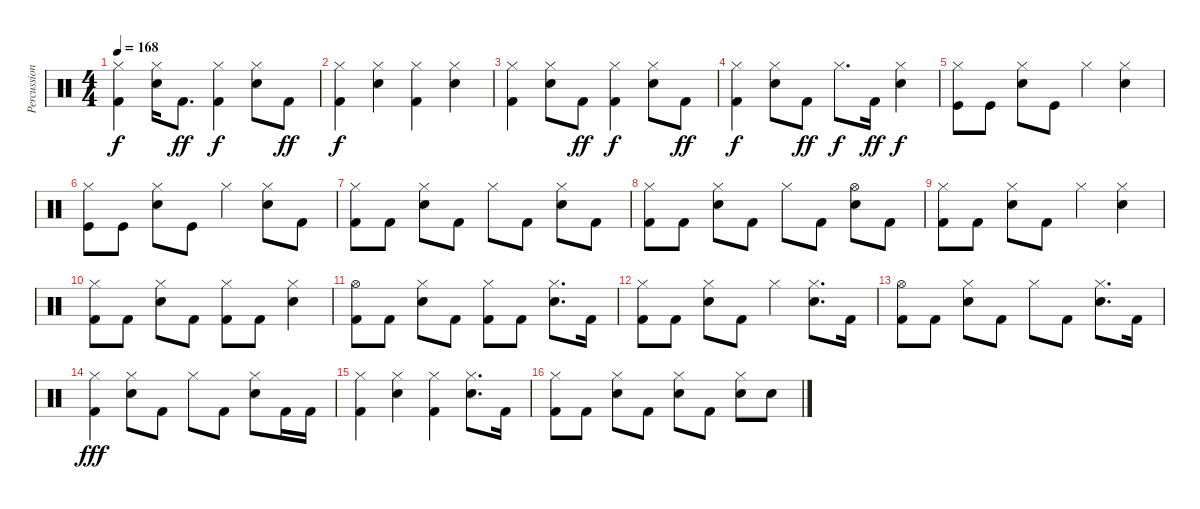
\track ("Percussion" "Percussion") {instrument percussion}
\staff {score}
\articulation defaults
\ts (4 4)
\tempo 168
\clef neutral
\ks c
("Hi-Hat (closed)" "Kick (hit) 2").4{dy f} ("Electric Snare (hit)" "Hi-Hat (closed)").16 "Kick (hit) 2".8{d dy ff} ("Kick (hit) 2" "Hi-Hat (closed)").4{dy f} ("Snare (hit) 2" "Hi-Hat (closed)").8 "Kick (hit) 2".8{dy ff} |
("Hi-Hat (closed)" "Kick (hit) 2").4{dy f} ("Electric Snare (hit)" "Hi-Hat (closed)").4 ("Hi-Hat (closed)" "Kick (hit) 2").4 ("Electric Snare (hit)" "Hi-Hat (closed)").4 |
("Kick (hit) 2" "Hi-Hat (closed)").4 ("Snare (hit) 2" "Hi-Hat (closed)").8 "Kick (hit) 2".8{dy ff} ("Kick (hit) 2" "Hi-Hat (closed)").4{dy f} ("Snare (hit) 2" "Hi-Hat (closed)").8 "Kick (hit) 2".8{dy ff} |
("Kick (hit) 2" "Hi-Hat (closed)").4{dy f} ("Snare (hit) 2" "Hi-Hat (closed)").8 "Kick (hit) 2".8{dy ff} "Hi-Hat (closed)".8{d dy f} "Kick (hit) 2".16{dy ff} ("Snare (hit) 2" "Hi-Hat (closed)").4{dy f} |
("Kick (hit)" "Hi-Hat (closed)").8 "Kick (hit)".8 ("Hi-Hat (closed)" "Snare (hit) 2").8 "Kick (hit)".8 "Hi-Hat (closed)".4 ("Hi-Hat (closed)" "Snare (hit) 2").4 |
("Kick (hit)" "Hi-Hat (closed)").8 "Kick (hit)".8 ("Hi-Hat (closed)" "Snare (hit) 2").8 "Kick (hit)".8 "Hi-Hat (closed)".4 ("Hi-Hat (closed)" "Snare (hit) 2").8 "Kick (hit) 2".8 |
("Kick (hit) 2" "Hi-Hat (closed)").8 "Kick (hit) 2".8 ("Snare (hit) 2" "Hi-Hat (closed)").8 "Kick (hit) 2".8 "Hi-Hat (closed)".8 "Kick (hit) 2".8 ("Snare (hit) 2" "Hi-Hat (closed)").8 "Kick (hit) 2".8 |
("Kick (hit) 2" "Hi-Hat (closed)").8 "Kick (hit) 2".8 ("Hi-Hat (closed)" "Snare (hit) 2").8 "Kick (hit) 2".8 "Hi-Hat (closed)".8 "Kick (hit) 2".8 ("Snare (hit) 2" "Hi-Hat (open)").8 "Kick (hit) 2".8 |
("Kick (hit) 2" "Hi-Hat (closed)").8 "Kick (hit) 2".8 ("Hi-Hat (closed)" "Snare (hit) 2").8 "Kick (hit) 2".8 "Hi-Hat (closed)".4 ("Snare (hit) 2" "Hi-Hat (closed)").4 |
("Kick (hit) 2" "Hi-Hat (closed)").8 "Kick (hit) 2".8 ("Hi-Hat (closed)" "Snare (hit) 2").8 "Kick (hit) 2".8 ("Kick (hit) 2" "Hi-Hat (closed)").8 "Kick (hit) 2".8 ("Hi-Hat (closed)" "Snare (hit) 2").4 |
("Kick (hit) 2" "Hi-Hat (open)").8 "Kick (hit) 2".8 ("Hi-Hat (closed)" "Snare (hit) 2").8 "Kick (hit) 2".8 ("Kick (hit) 2" "Hi-Hat (closed)").8 "Kick (hit) 2".8 ("Hi-Hat (closed)" "Snare (hit) 2").8{d} "Kick (hit) 2".16 |
("Kick (hit) 2" "Hi-Hat (closed)").8 "Kick (hit) 2".8 ("Snare (hit) 2" "Hi-Hat (closed)").8 "Kick (hit) 2".8 "Hi-Hat (closed)".4 ("Hi-Hat (closed)" "Snare (hit) 2").8{d} "Kick (hit) 2".16 |
("Kick (hit) 2" "Hi-Hat (open)").8 "Kick (hit) 2".8 ("Hi-Hat (closed)" "Snare (hit) 2").8 "Kick (hit) 2".8 "Hi-Hat (closed)".8 "Kick (hit) 2".8 ("Hi-Hat (closed)" "Snare (hit) 2").8{d} "Kick (hit) 2".16 |
("Kick (hit) 2" "Hi-Hat (closed)").4{dy fff} ("Snare (hit) 2" "Hi-Hat (closed)").8 "Kick (hit) 2".8 "Hi-Hat (closed)".8 "Kick (hit) 2".8 ("Snare (hit) 2" "Hi-Hat (closed)").8 "Kick (hit) 2".16 "Kick (hit) 2".16 |
("Kick (hit) 2" "Hi-Hat (closed)").4 ("Snare (hit) 2" "Hi-Hat (closed)").4 ("Hi-Hat (closed)" "Kick (hit) 2").4 ("Snare (hit) 2" "Hi-Hat (closed)").8{d} "Kick (hit) 2".16 |
("Kick (hit) 2" "Hi-Hat (closed)").8 "Kick (hit) 2".8 ("Snare (hit) 2" "Hi-Hat (closed)").8 "Kick (hit) 2".8 ("Snare (hit) 2" "Hi-Hat (closed)").8 "Kick (hit) 2".8 ("Snare (hit) 2" "Hi-Hat (closed)").8 "Snare (hit) 2".8
